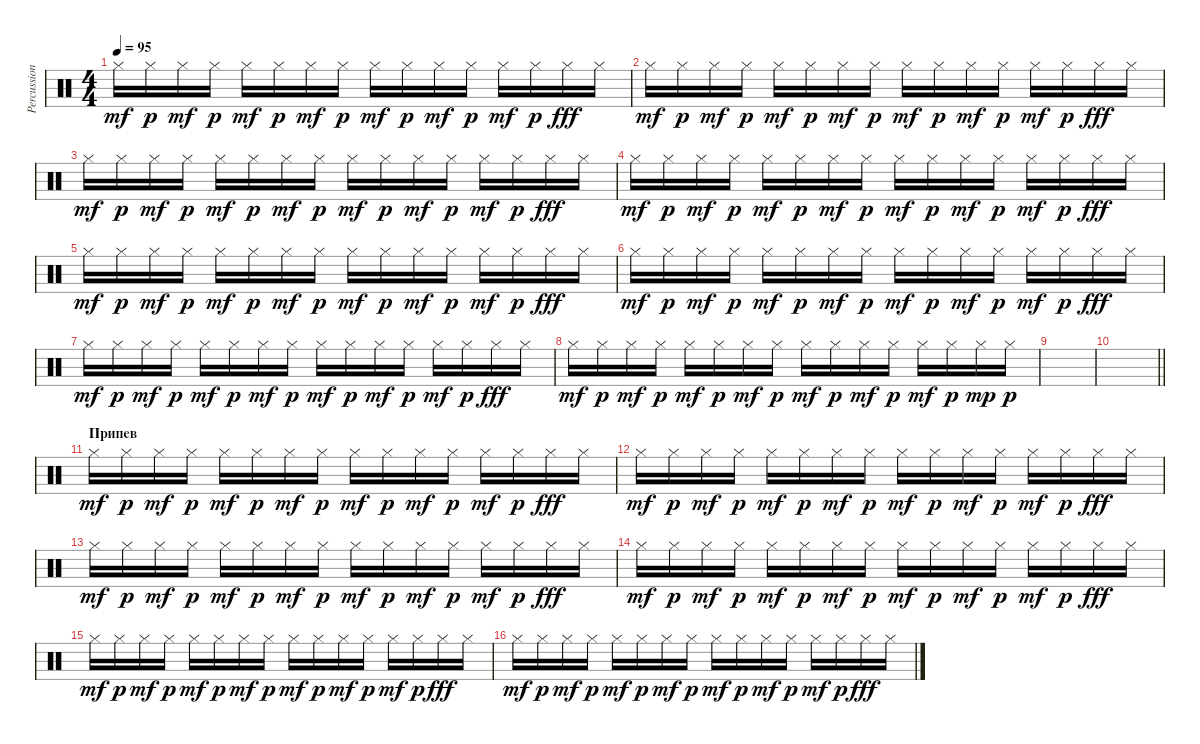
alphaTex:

\track ("Percussion" "Percussion") {instrument percussion}
\staff {score}
\articulation defaults
\ts (4 4)
\tempo 95
\clef neutral
\ks c "Hi-Hat (closed)".16{dy mf} "Hi-Hat (closed)".16{dy p} "Hi-Hat (closed)".16{dy mf} "Hi-Hat (closed)".16{dy p} "Hi-Hat (closed)".16{dy mf} "Hi-Hat (closed)".16{dy p} "Hi-Hat (closed)".16{dy mf} "Hi-Hat (closed)".16{dy p} "Hi-Hat (closed)".16{dy mf} "Hi-Hat (closed)".16{dy p} "Hi-Hat (closed)".16{dy mf} "Hi-Hat (closed)".16{dy p} "Hi-Hat (closed)".16{dy mf} "Hi-Hat (closed)".16{dy p} "Hi-Hat (closed)".16{dy fff} "Hi-Hat (closed)".16
|
"Hi-Hat (closed)".16{dy mf} "Hi-Hat (closed)".16{dy p} "Hi-Hat (closed)".16{dy mf} "Hi-Hat (closed)".16{dy p} "Hi-Hat (closed)".16{dy mf} "Hi-Hat (closed)".16{dy p} "Hi-Hat (closed)".16{dy mf} "Hi-Hat (closed)".16{dy p} "Hi-Hat (closed)".16{dy mf} "Hi-Hat (closed)".16{dy p} "Hi-Hat (closed)".16{dy mf} "Hi-Hat (closed)".16{dy p} "Hi-Hat (closed)".16{dy mf} "Hi-Hat (closed)".16{dy p} "Hi-Hat (closed)".16{dy fff} "Hi-Hat (closed)".16 |
"Hi-Hat (closed)".16{dy mf} "Hi-Hat (closed)".16{dy p} "Hi-Hat (closed)".16{dy mf} "Hi-Hat (closed)".16{dy p} "Hi-Hat (closed)".16{dy mf} "Hi-Hat (closed)".16{dy p} "Hi-Hat (closed)".16{dy mf} "Hi-Hat (closed)".16{dy p} "Hi-Hat (closed)".16{dy mf} "Hi-Hat (closed)".16{dy p} "Hi-Hat (closed)".16{dy mf} "Hi-Hat (closed)".16{dy p} "Hi-Hat (closed)".16{dy mf} "Hi-Hat (closed)".16{dy p} "Hi-Hat (closed)".16{dy fff} "Hi-Hat (closed)".16 |
"Hi-Hat (closed)".16{dy mf} "Hi-Hat (closed)".16{dy p} "Hi-Hat (closed)".16{dy mf} "Hi-Hat (closed)".16{dy p} "Hi-Hat (closed)".16{dy mf} "Hi-Hat (closed)".16{dy p} "Hi-Hat (closed)".16{dy mf} "Hi-Hat (closed)".16{dy p} "Hi-Hat (closed)".16{dy mf} "Hi-Hat (closed)".16{dy p} "Hi-Hat (closed)".16{dy mf} "Hi-Hat (closed)".16{dy p} "Hi-Hat (closed)".16{dy mf} "Hi-Hat (closed)".16{dy p} "Hi-Hat (closed)".16{dy fff} "Hi-Hat (closed)".16 |
"Hi-Hat (closed)".16{dy mf} "Hi-Hat (closed)".16{dy p} "Hi-Hat (closed)".16{dy mf} "Hi-Hat (closed)".16{dy p} "Hi-Hat (closed)".16{dy mf} "Hi-Hat (closed)".16{dy p} "Hi-Hat (closed)".16{dy mf} "Hi-Hat (closed)".16{dy p} "Hi-Hat (closed)".16{dy mf} "Hi-Hat (closed)".16{dy p} "Hi-Hat (closed)".16{dy mf} "Hi-Hat (closed)".16{dy p} "Hi-Hat (closed)".16{dy mf} "Hi-Hat (closed)".16{dy p} "Hi-Hat (closed)".16{dy fff} "Hi-Hat (closed)".16 |
"Hi-Hat (closed)".16{dy mf} "Hi-Hat (closed)".16{dy p} "Hi-Hat (closed)".16{dy mf} "Hi-Hat (closed)".16{dy p} "Hi-Hat (closed)".16{dy mf} "Hi-Hat (closed)".16{dy p} "Hi-Hat (closed)".16{dy mf} "Hi-Hat (closed)".16{dy p} "Hi-Hat (closed)".16{dy mf} "Hi-Hat (closed)".16{dy p} "Hi-Hat (closed)".16{dy mf} "Hi-Hat (closed)".16{dy p} "Hi-Hat (closed)".16{dy mf} "Hi-Hat (closed)".16{dy p} "Hi-Hat (closed)".16{dy fff} "Hi-Hat (closed)".16 |
"Hi-Hat (closed)".16{dy mf} "Hi-Hat (closed)".16{dy p} "Hi-Hat (closed)".16{dy mf} "Hi-Hat (closed)".16{dy p} "Hi-Hat (closed)".16{dy mf} "Hi-Hat (closed)".16{dy p} "Hi-Hat (closed)".16{dy mf} "Hi-Hat (closed)".16{dy p} "Hi-Hat (closed)".16{dy mf} "Hi-Hat (closed)".16{dy p} "Hi-Hat (closed)".16{dy mf} "Hi-Hat (closed)".16{dy p} "Hi-Hat (closed)".16{dy mf} "Hi-Hat (closed)".16{dy p} "Hi-Hat (closed)".16{dy fff} "Hi-Hat (closed)".16 |
"Hi-Hat (closed)".16{dy mf} "Hi-Hat (closed)".16{dy p} "Hi-Hat (closed)".16{dy mf} "Hi-Hat (closed)".16{dy p} "Hi-Hat (closed)".16{dy mf} "Hi-Hat (closed)".16{dy p} "Hi-Hat (closed)".16{dy mf} "Hi-Hat (closed)".16{dy p} "Hi-Hat (closed)".16{dy mf} "Hi-Hat (closed)".16{dy p} "Hi-Hat (closed)".16{dy mf} "Hi-Hat (closed)".16{dy p} "Hi-Hat (closed)".16{dy mf} "Hi-Hat (closed)".16{dy p} "Hi-Hat (closed)".16{dy mp} "Hi-Hat (closed)".16{dy p} |
|
\barLineRight lightlight
|
\section ("" "Припев")
"Hi-Hat (closed)".16{dy mf} "Hi-Hat (closed)".16{dy p} "Hi-Hat (closed)".16{dy mf} "Hi-Hat (closed)".16{dy p} "Hi-Hat (closed)".16{dy mf} "Hi-Hat (closed)".16{dy p} "Hi-Hat (closed)".16{dy mf} "Hi-Hat (closed)".16{dy p} "Hi-Hat (closed)".16{dy mf} "Hi-Hat (closed)".16{dy p} "Hi-Hat (closed)".16{dy mf} "Hi-Hat (closed)".16{dy p} "Hi-Hat (closed)".16{dy mf} "Hi-Hat (closed)".16{dy p} "Hi-Hat (closed)".16{dy fff} "Hi-Hat (closed)".16 |
"Hi-Hat (closed)".16{dy mf} "Hi-Hat (closed)".16{dy p} "Hi-Hat (closed)".16{dy mf} "Hi-Hat (closed)".16{dy p} "Hi-Hat (closed)".16{dy mf} "Hi-Hat (closed)".16{dy p} "Hi-Hat (closed)".16{dy mf} "Hi-Hat (closed)".16{dy p} "Hi-Hat (closed)".16{dy mf} "Hi-Hat (closed)".16{dy p} "Hi-Hat (closed)".16{dy mf} "Hi-Hat (closed)".16{dy p} "Hi-Hat (closed)".16{dy mf} "Hi-Hat (closed)".16{dy p} "Hi-Hat (closed)".16{dy fff} "Hi-Hat (closed)".16 |
"Hi-Hat (closed)".16{dy mf} "Hi-Hat (closed)".16{dy p} "Hi-Hat (closed)".16{dy mf} "Hi-Hat (closed)".16{dy p} "Hi-Hat (closed)".16{dy mf} "Hi-Hat (closed)".16{dy p} "Hi-Hat (closed)".16{dy mf} "Hi-Hat (closed)".16{dy p} "Hi-Hat (closed)".16{dy mf} "Hi-Hat (closed)".16{dy p} "Hi-Hat (closed)".16{dy mf} "Hi-Hat (closed)".16{dy p} "Hi-Hat (closed)".16{dy mf} "Hi-Hat (closed)".16{dy p} "Hi-Hat (closed)".16{dy fff} "Hi-Hat (closed)".16 |
"Hi-Hat (closed)".16{dy mf} "Hi-Hat (closed)".16{dy p} "Hi-Hat (closed)".16{dy mf} "Hi-Hat (closed)".16{dy p} "Hi-Hat (closed)".16{dy mf} "Hi-Hat (closed)".16{dy p} "Hi-Hat (closed)".16{dy mf} "Hi-Hat (closed)".16{dy p} "Hi-Hat (closed)".16{dy mf} "Hi-Hat (closed)".16{dy p} "Hi-Hat (closed)".16{dy mf} "Hi-Hat (closed)".16{dy p} "Hi-Hat (closed)".16{dy mf} "Hi-Hat (closed)".16{dy p} "Hi-Hat (closed)".16{dy fff} "Hi-Hat (closed)".16 |
"Hi-Hat (closed)".16{dy mf} "Hi-Hat (closed)".16{dy p} "Hi-Hat (closed)".16{dy mf} "Hi-Hat (closed)".16{dy p} "Hi-Hat (closed)".16{dy mf} "Hi-Hat (closed)".16{dy p} "Hi-Hat (closed)".16{dy mf} "Hi-Hat (closed)".16{dy p} "Hi-Hat (closed)".16{dy mf} "Hi-Hat (closed)".16{dy p} "Hi-Hat (closed)".16{dy mf} "Hi-Hat (closed)".16{dy p} "Hi-Hat (closed)".16{dy mf} "Hi-Hat (closed)".16{dy p} "Hi-Hat (closed)".16{dy fff} "Hi-Hat (closed)".16 |
"Hi-Hat (closed)".16{dy mf} "Hi-Hat (closed)".16{dy p} "Hi-Hat (closed)".16{dy mf} "Hi-Hat (closed)".16{dy p} "Hi-Hat (closed)".16{dy mf} "Hi-Hat (closed)".16{dy p} "Hi-Hat (closed)".16{dy mf} "Hi-Hat (closed)".16{dy p} "Hi-Hat (closed)".16{dy mf} "Hi-Hat (closed)".16{dy p} "Hi-Hat (closed)".16{dy mf} "Hi-Hat (closed)".16{dy p} "Hi-Hat (closed)".16{dy mf} "Hi-Hat (closed)".16{dy p} "Hi-Hat (closed)".16{dy fff} "Hi-Hat (closed)".16
